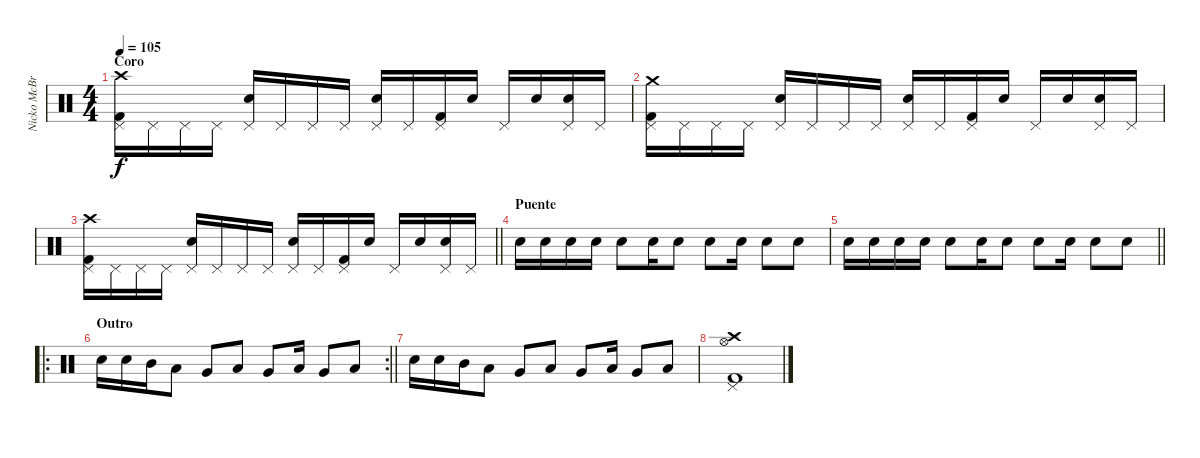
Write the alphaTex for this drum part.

\track ("Nicko McBrain" "Nicko McBr") {instrument percussion}
\staff {score}
\articulation defaults
\ts (4 4)
\section ("" "Coro")
\tempo 105
\clef neutral
\ks c
("Kick (hit) 2" "Pedal Hi-Hat (hit)" "Crash high (hit)").16{dy f} "Pedal Hi-Hat (hit)".16 "Pedal Hi-Hat (hit)".16 "Pedal Hi-Hat (hit)".16 ("Snare (hit) 2" "Pedal Hi-Hat (hit)").16 "Pedal Hi-Hat (hit)".16 "Pedal Hi-Hat (hit)".16 "Pedal Hi-Hat (hit)".16 ("Snare (hit) 2" "Pedal Hi-Hat (hit)").16 "Pedal Hi-Hat (hit)".16 ("Kick (hit) 2" "Pedal Hi-Hat (hit)").16 "Snare (hit) 2".16 "Pedal Hi-Hat (hit)".16 "Snare (hit) 2".16 ("Snare (hit) 2" "Pedal Hi-Hat (hit)").16 "Pedal Hi-Hat (hit)".16 |
("Kick (hit) 2" "Pedal Hi-Hat (hit)" "Crash medium (hit)").16 "Pedal Hi-Hat (hit)".16 "Pedal Hi-Hat (hit)".16 "Pedal Hi-Hat (hit)".16 ("Snare (hit) 2" "Pedal Hi-Hat (hit)").16 "Pedal Hi-Hat (hit)".16 "Pedal Hi-Hat (hit)".16 "Pedal Hi-Hat (hit)".16 ("Snare (hit) 2" "Pedal Hi-Hat (hit)").16 "Pedal Hi-Hat (hit)".16 ("Kick (hit) 2" "Pedal Hi-Hat (hit)").16 "Snare (hit) 2".16 "Pedal Hi-Hat (hit)".16 "Snare (hit) 2".16 ("Snare (hit) 2" "Pedal Hi-Hat (hit)").16 "Pedal Hi-Hat (hit)".16 |
\barLineRight lightlight
("Kick (hit) 2" "Pedal Hi-Hat (hit)" "Crash high (hit)").16 "Pedal Hi-Hat (hit)".16 "Pedal Hi-Hat (hit)".16 "Pedal Hi-Hat (hit)".16 ("Snare (hit) 2" "Pedal Hi-Hat (hit)").16 "Pedal Hi-Hat (hit)".16 "Pedal Hi-Hat (hit)".16 "Pedal Hi-Hat (hit)".16 ("Snare (hit) 2" "Pedal Hi-Hat (hit)").16 "Pedal Hi-Hat (hit)".16 ("Kick (hit) 2" "Pedal Hi-Hat (hit)").16 "Snare (hit) 2".16 "Pedal Hi-Hat (hit)".16 "Snare (hit) 2".16 ("Snare (hit) 2" "Pedal Hi-Hat (hit)").16 "Pedal Hi-Hat (hit)".16 |
\section ("" "Puente")
"Snare (hit) 2".16 "Snare (hit) 2".16 "Snare (hit) 2".16 "Snare (hit) 2".16 "Snare (hit) 2".8 "Snare (hit) 2".16 "Snare (hit) 2".8 "Snare (hit) 2".8 "Snare (hit) 2".16 "Snare (hit) 2".8 "Snare (hit) 2".8 |
\barLineRight lightlight "Snare (hit) 2".16 "Snare (hit) 2".16 "Snare (hit) 2".16 "Snare (hit) 2".16 "Snare (hit) 2".8 "Snare (hit) 2".16 "Snare (hit) 2".8 "Snare (hit) 2".8 "Snare (hit) 2".16 "Snare (hit) 2".8 "Snare (hit) 2".8
|
\ro
\rc 2
\section ("" "Outro")
\barLineRight lightlight "Snare (hit) 2".16 "Snare (hit) 2".16 "Mid Tom (hit)".16 "Low Tom (hit)".8 "Very Low Tom (hit)".8 "Low Tom (hit)".8 "Very Low Tom (hit)".8 "Low Floor Tom (hit)".16 "Very Low Tom (hit)".8 "Low Floor Tom (hit)".8
|
"Snare (hit) 2".16 "Snare (hit) 2".16 "Mid Tom (hit)".16 "Low Tom (hit)".8 "Very Low Tom (hit)".8 "Low Tom (hit)".8 "Very Low Tom (hit)".8 "Low Floor Tom (hit)".16 "Very Low Tom (hit)".8 "Low Floor Tom (hit)".8 |
("Kick (hit) 2" "Pedal Hi-Hat (hit)" "Hi-Hat (open)" "Crash high (hit)").1
